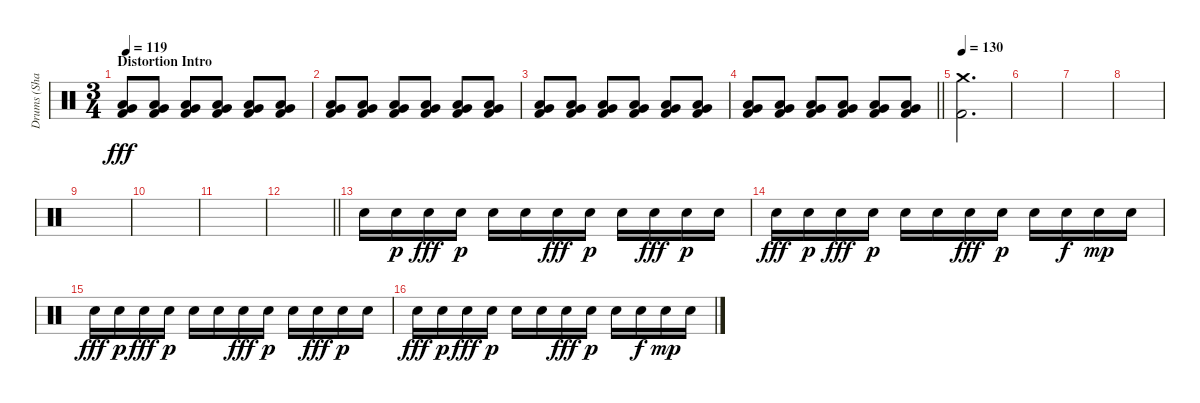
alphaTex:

\track ("Drums (Shawn)" "Drums (Sha") {instrument percussion}
\staff {score}
\articulation defaults
\ts (3 4)
\section ("" "Distortion Intro")
\tempo 119
\clef neutral
\ks c
("Very Low Tom (hit)" "Low Floor Tom (hit)" "Kick (hit) 2").8{dy fff} ("Very Low Tom (hit)" "Low Floor Tom (hit)" "Kick (hit) 2").8 ("Very Low Tom (hit)" "Low Floor Tom (hit)" "Kick (hit) 2").8 ("Very Low Tom (hit)" "Low Floor Tom (hit)" "Kick (hit) 2").8 ("Very Low Tom (hit)" "Low Floor Tom (hit)" "Kick (hit) 2").8 ("Very Low Tom (hit)" "Low Floor Tom (hit)" "Kick (hit) 2").8 |
("Very Low Tom (hit)" "Low Floor Tom (hit)" "Kick (hit) 2").8 ("Very Low Tom (hit)" "Low Floor Tom (hit)" "Kick (hit) 2").8 ("Very Low Tom (hit)" "Low Floor Tom (hit)" "Kick (hit) 2").8 ("Very Low Tom (hit)" "Low Floor Tom (hit)" "Kick (hit) 2").8 ("Very Low Tom (hit)" "Low Floor Tom (hit)" "Kick (hit) 2").8 ("Very Low Tom (hit)" "Low Floor Tom (hit)" "Kick (hit) 2").8 |
("Very Low Tom (hit)" "Low Floor Tom (hit)" "Kick (hit) 2").8 ("Very Low Tom (hit)" "Low Floor Tom (hit)" "Kick (hit) 2").8 ("Very Low Tom (hit)" "Low Floor Tom (hit)" "Kick (hit) 2").8 ("Very Low Tom (hit)" "Low Floor Tom (hit)" "Kick (hit) 2").8 ("Very Low Tom (hit)" "Low Floor Tom (hit)" "Kick (hit) 2").8 ("Very Low Tom (hit)" "Low Floor Tom (hit)" "Kick (hit) 2").8 |
\barLineRight lightlight
("Very Low Tom (hit)" "Low Floor Tom (hit)" "Kick (hit) 2").8 ("Very Low Tom (hit)" "Low Floor Tom (hit)" "Kick (hit) 2").8 ("Very Low Tom (hit)" "Low Floor Tom (hit)" "Kick (hit) 2").8 ("Very Low Tom (hit)" "Low Floor Tom (hit)" "Kick (hit) 2").8 ("Very Low Tom (hit)" "Low Floor Tom (hit)" "Kick (hit) 2").8 ("Very Low Tom (hit)" "Low Floor Tom (hit)" "Kick (hit) 2").8 |
\tempo 130
("Crash medium (hit)" "Kick (hit) 2").2{d} |
|
|
|
|
|
|
\barLineRight lightlight
|
"Snare (hit) 2".16 "Snare (hit) 2".16{dy p} "Snare (hit) 2".16{dy fff} "Snare (hit) 2".16{dy p} "Snare (hit) 2".16 "Snare (hit) 2".16 "Snare (hit) 2".16{dy fff} "Snare (hit) 2".16{dy p} "Snare (hit) 2".16 "Snare (hit) 2".16{dy fff} "Snare (hit) 2".16{dy p} "Snare (hit) 2".16 |
"Snare (hit) 2".16{dy fff} "Snare (hit) 2".16{dy p} "Snare (hit) 2".16{dy fff} "Snare (hit) 2".16{dy p} "Snare (hit) 2".16 "Snare (hit) 2".16 "Snare (hit) 2".16{dy fff} "Snare (hit) 2".16{dy p} "Snare (hit) 2".16 "Snare (hit) 2".16{dy f} "Snare (hit) 2".16{dy mp} "Snare (hit) 2".16 |
"Snare (hit) 2".16{dy fff} "Snare (hit) 2".16{dy p} "Snare (hit) 2".16{dy fff} "Snare (hit) 2".16{dy p} "Snare (hit) 2".16 "Snare (hit) 2".16 "Snare (hit) 2".16{dy fff} "Snare (hit) 2".16{dy p} "Snare (hit) 2".16 "Snare (hit) 2".16{dy fff} "Snare (hit) 2".16{dy p} "Snare (hit) 2".16 |
"Snare (hit) 2".16{dy fff} "Snare (hit) 2".16{dy p} "Snare (hit) 2".16{dy fff} "Snare (hit) 2".16{dy p} "Snare (hit) 2".16 "Snare (hit) 2".16 "Snare (hit) 2".16{dy fff} "Snare (hit) 2".16{dy p} "Snare (hit) 2".16 "Snare (hit) 2".16{dy f} "Snare (hit) 2".16{dy mp} "Snare (hit) 2".16
